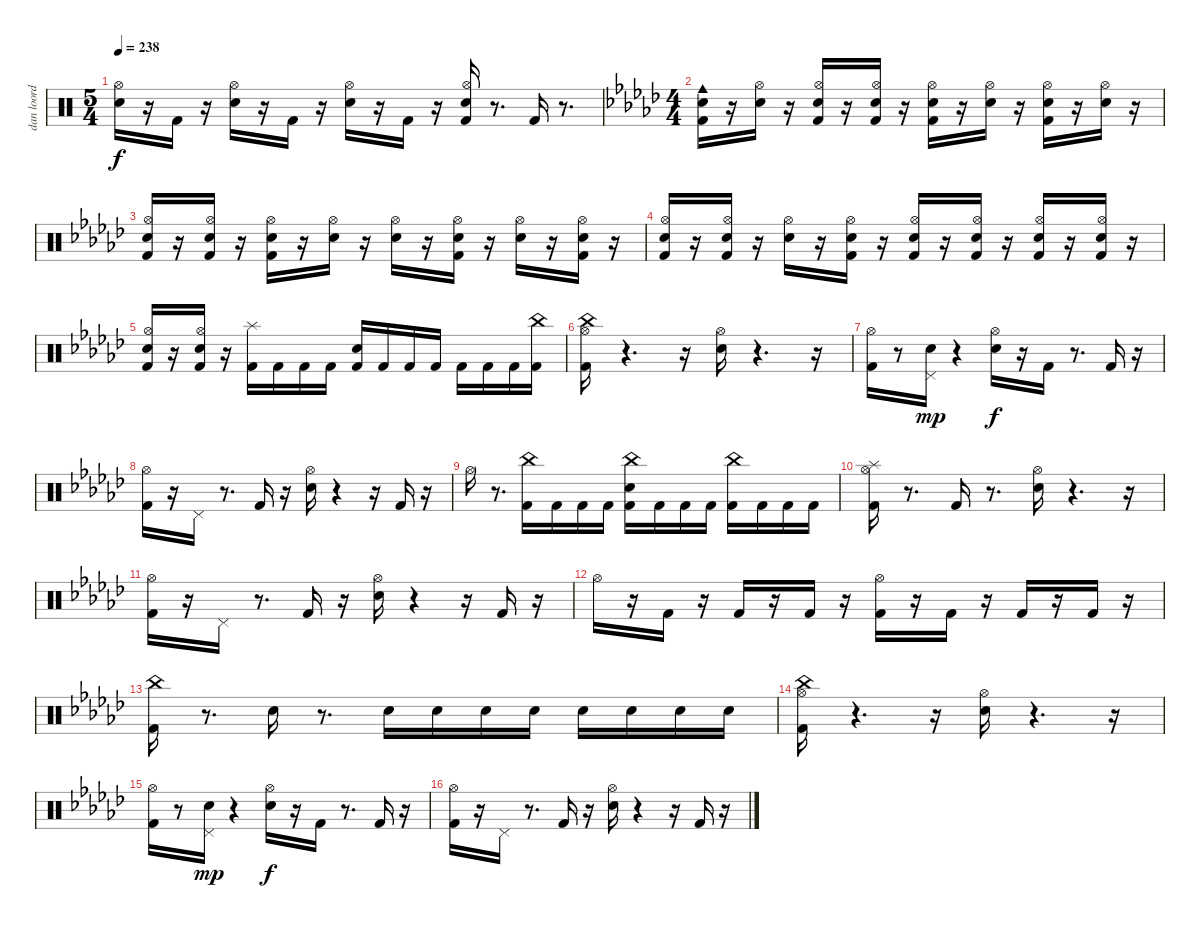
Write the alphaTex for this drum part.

\track ("dan loord foord" "dan loord ") {instrument percussion}
\staff {score}
\articulation defaults
\ts (5 4)
\tempo 238
\clef neutral
\ks c
("Snare (hit) 2" "Hi-Hat (open)").16{dy f} r.16 "Kick (hit) 2".16 r.16 ("Snare (hit) 2" "Hi-Hat (open)").16 r.16 "Kick (hit) 2".16 r.16 ("Snare (hit) 2" "Hi-Hat (open)").16 r.16 "Kick (hit) 2".16 r.16 ("Kick (hit) 2" "Snare (hit) 2" "Hi-Hat (open)").16 r.8{d} "Kick (hit) 2".16 r.8{d} |
\ts (4 4)
\ks gb
("Kick (hit) 2" "Snare (hit) 2" "Cowbell medium (hit)").16 r.16 ("Snare (hit) 2" "Hi-Hat (open)").16 r.16 ("Kick (hit) 2" "Snare (hit) 2" "Hi-Hat (open)").16 r.16 ("Kick (hit) 2" "Snare (hit) 2" "Hi-Hat (open)").16 r.16 ("Kick (hit) 2" "Snare (hit) 2" "Hi-Hat (open)").16 r.16 ("Snare (hit) 2" "Hi-Hat (open)").16 r.16 ("Kick (hit) 2" "Snare (hit) 2" "Hi-Hat (open)").16 r.16 ("Snare (hit) 2" "Hi-Hat (open)").16 r.16 |
("Kick (hit) 2" "Snare (hit) 2" "Hi-Hat (open)").16 r.16 ("Kick (hit) 2" "Snare (hit) 2" "Hi-Hat (open)").16 r.16 ("Kick (hit) 2" "Snare (hit) 2" "Hi-Hat (open)").16 r.16 ("Snare (hit) 2" "Hi-Hat (open)").16 r.16 ("Snare (hit) 2" "Hi-Hat (open)").16 r.16 ("Kick (hit) 2" "Snare (hit) 2" "Hi-Hat (open)").16 r.16 ("Snare (hit) 2" "Hi-Hat (open)").16 r.16 ("Kick (hit) 2" "Snare (hit) 2" "Hi-Hat (open)").16 r.16 |
("Kick (hit) 2" "Snare (hit) 2" "Hi-Hat (open)").16 r.16 ("Kick (hit) 2" "Snare (hit) 2" "Hi-Hat (open)").16 r.16 ("Snare (hit) 2" "Hi-Hat (open)").16 r.16 ("Kick (hit) 2" "Snare (hit) 2" "Hi-Hat (open)").16 r.16 ("Kick (hit) 2" "Snare (hit) 2" "Hi-Hat (open)").16 r.16 ("Kick (hit) 2" "Snare (hit) 2" "Hi-Hat (open)").16 r.16 ("Kick (hit) 2" "Snare (hit) 2" "Hi-Hat (open)").16 r.16 ("Kick (hit) 2" "Snare (hit) 2" "Hi-Hat (open)").16 r.16 |
("Kick (hit) 2" "Snare (hit) 2" "Hi-Hat (open)").16 r.16 ("Kick (hit) 2" "Snare (hit) 2" "Hi-Hat (open)").16 r.16 ("Kick (hit) 2" "Splash (hit)").16 "Kick (hit) 2".16 "Kick (hit) 2".16 "Kick (hit) 2".16 ("Kick (hit) 2" "Snare (hit) 2").16 "Kick (hit) 2".16 "Kick (hit) 2".16 "Kick (hit) 2".16 "Kick (hit) 2".16 "Kick (hit) 2".16 "Kick (hit) 2".16 ("Kick (hit) 2" "China (hit)").16 |
("Kick (hit) 2" "Hi-Hat (open)" "China (hit)").16 r.4{d} r.16 ("Snare (hit) 2" "Hi-Hat (open)").16 r.4{d} r.16 |
("Kick (hit) 2" "Hi-Hat (open)").16 r.8 ("Snare (hit) 2" "Pedal Hi-Hat (hit)").16{dy mp} r.4 ("Snare (hit) 2" "Hi-Hat (open)").16{dy f} r.16 "Kick (hit) 2".16 r.8{d} "Kick (hit) 2".16 r.16 |
("Kick (hit) 2" "Hi-Hat (open)").16 r.16 "Pedal Hi-Hat (hit)".16 r.8{d} "Kick (hit) 2".16 r.16 ("Snare (hit) 2" "Hi-Hat (open)").16 r.4 r.16 "Kick (hit) 2".16 r.16 |
"Hi-Hat (open)".16 r.8{d} ("Kick (hit) 2" "China (hit)").16 "Kick (hit) 2".16 "Kick (hit) 2".16 "Kick (hit) 2".16 ("Kick (hit) 2" "Snare (hit) 2" "China (hit)").16 "Kick (hit) 2".16 "Kick (hit) 2".16 "Kick (hit) 2".16 ("Kick (hit) 2" "China (hit)").16 "Kick (hit) 2".16 "Kick (hit) 2".16 "Kick (hit) 2".16 |
("Kick (hit) 2" "Hi-Hat (open)" "Splash (hit)").16 r.8{d} "Kick (hit) 2".16 r.8{d} ("Snare (hit) 2" "Hi-Hat (open)").16 r.4{d} r.16 |
("Kick (hit) 2" "Hi-Hat (open)").16 r.16 "Pedal Hi-Hat (hit)".16 r.8{d} "Kick (hit) 2".16 r.16 ("Snare (hit) 2" "Hi-Hat (open)").16 r.4 r.16 "Kick (hit) 2".16 r.16 |
"Hi-Hat (open)".16 r.16 "Kick (hit) 2".16 r.16 "Kick (hit) 2".16 r.16 "Kick (hit) 2".16 r.16 ("Kick (hit) 2" "Hi-Hat (open)").16 r.16 "Kick (hit) 2".16 r.16 "Kick (hit) 2".16 r.16 "Kick (hit) 2".16 r.16 |
("Kick (hit) 2" "China (hit)").16 r.8{d} "Snare (hit) 2".16 r.8{d} "Snare (hit) 2".16 "Snare (hit) 2".16 "Snare (hit) 2".16 "Snare (hit) 2".16 "Snare (hit) 2".16 "Snare (hit) 2".16 "Snare (hit) 2".16 "Snare (hit) 2".16 |
("Kick (hit) 2" "Hi-Hat (open)" "China (hit)").16 r.4{d} r.16 ("Snare (hit) 2" "Hi-Hat (open)").16 r.4{d} r.16 |
("Kick (hit) 2" "Hi-Hat (open)").16 r.8 ("Snare (hit) 2" "Pedal Hi-Hat (hit)").16{dy mp} r.4 ("Snare (hit) 2" "Hi-Hat (open)").16{dy f} r.16 "Kick (hit) 2".16 r.8{d} "Kick (hit) 2".16 r.16 |
("Kick (hit) 2" "Hi-Hat (open)").16 r.16 "Pedal Hi-Hat (hit)".16 r.8{d} "Kick (hit) 2".16 r.16 ("Snare (hit) 2" "Hi-Hat (open)").16 r.4 r.16 "Kick (hit) 2".16 r.16
